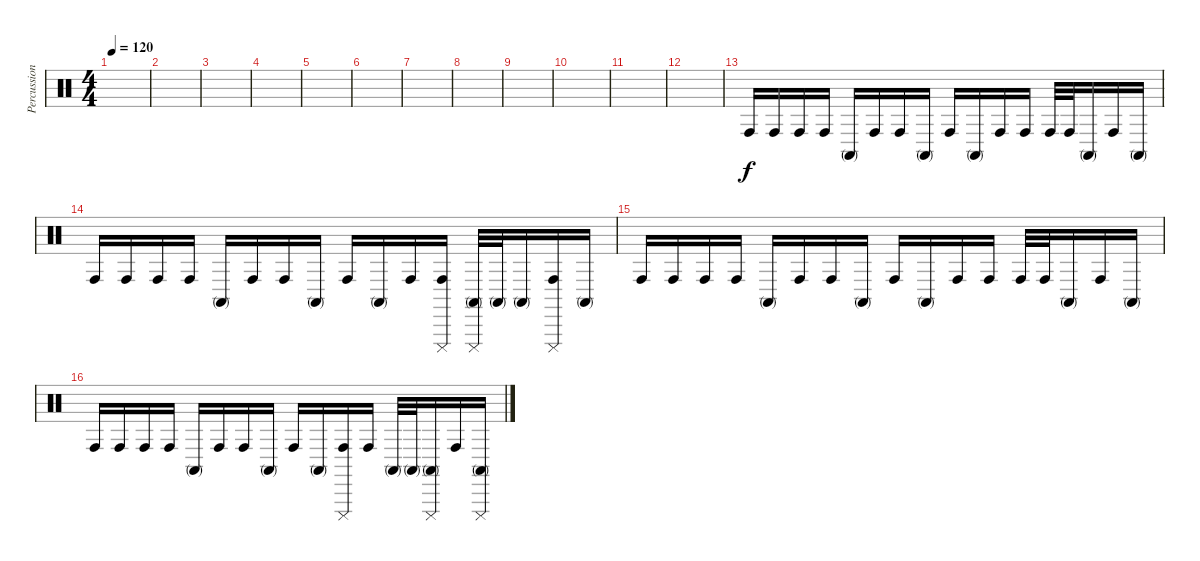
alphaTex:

\track ("Percussion" "Percussion") {instrument percussion}
\staff {score}
\articulation defaults
\ts (4 4)
\tempo 120
\clef neutral
\ks c
|
|
|
|
|
|
|
|
|
|
|
|
"Conga high (hit)".16 "Conga high (hit)".16 "Conga high (hit)".16 "Conga high (hit)".16 "Conga high (mute)".16 "Conga high (hit)".16 "Conga high (hit)".16 "Conga high (mute)".16 "Conga high (hit)".16 "Conga high (mute)".16 "Conga high (hit)".16 "Conga high (hit)".16 "Conga high (hit)".32 "Conga high (hit)".32 "Conga high (mute)".16 "Conga high (hit)".16 "Conga high (mute)".16 |
"Conga high (hit)".16 "Conga high (hit)".16 "Conga high (hit)".16 "Conga high (hit)".16 "Conga high (mute)".16 "Conga high (hit)".16 "Conga high (hit)".16 "Conga high (mute)".16 "Conga high (hit)".16 "Conga high (mute)".16 "Conga high (hit)".16 ("Cuica (mute)" "Conga high (hit)").16 ("Cuica (mute)" "Conga high (mute)").32 "Conga high (mute)".32 "Conga high (mute)".16 ("Cuica (mute)" "Conga high (hit)").16 "Conga high (mute)".16 |
"Conga high (hit)".16 "Conga high (hit)".16 "Conga high (hit)".16 "Conga high (hit)".16 "Conga high (mute)".16 "Conga high (hit)".16 "Conga high (hit)".16 "Conga high (mute)".16 "Conga high (hit)".16 "Conga high (mute)".16 "Conga high (hit)".16 "Conga high (hit)".16 "Conga high (hit)".32 "Conga high (hit)".32 "Conga high (mute)".16 "Conga high (hit)".16 "Conga high (mute)".16 |
"Conga high (hit)".16 "Conga high (hit)".16 "Conga high (hit)".16 "Conga high (hit)".16 "Conga high (mute)".16 "Conga high (hit)".16 "Conga high (hit)".16 "Conga high (mute)".16 "Conga high (hit)".16 "Conga high (mute)".16 ("Cuica (mute)" "Conga high (hit)").16 "Conga high (hit)".16 "Conga high (mute)".32 "Conga high (mute)".32 ("Cuica (mute)" "Conga high (mute)").16 "Conga high (hit)".16 ("Cuica (mute)" "Conga high (mute)").16
